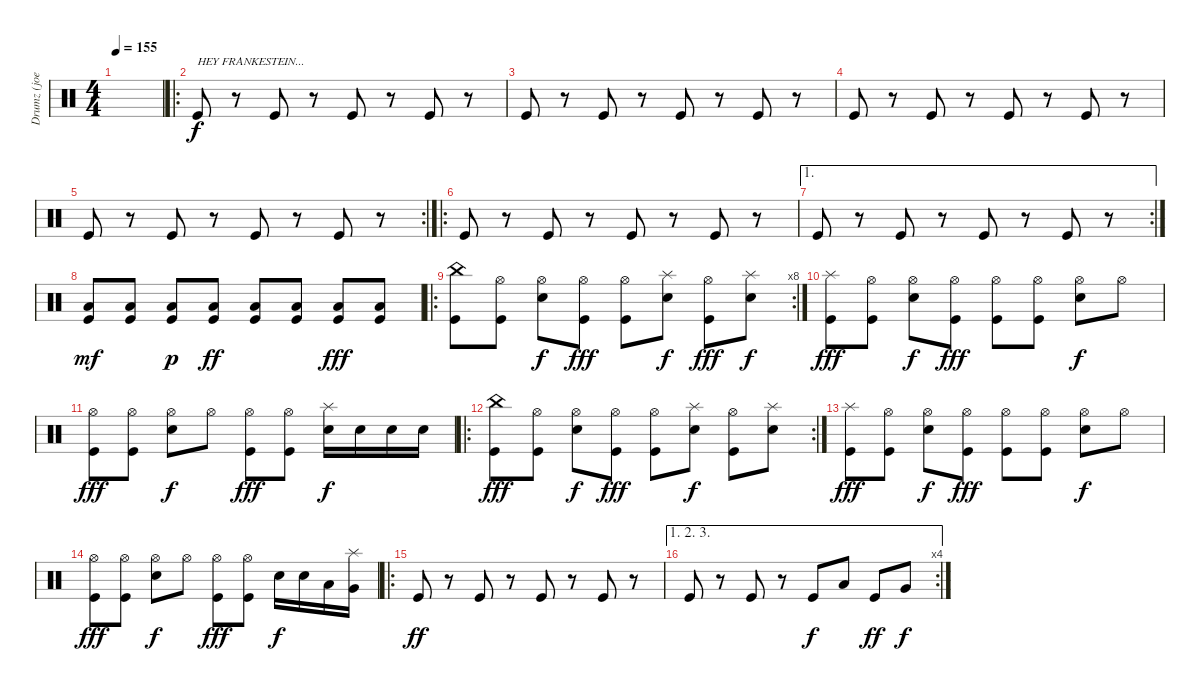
\track ("Drumz (joey on album)" "Drumz (joe") {instrument percussion}
\staff {score}
\articulation defaults
\ts (4 4)
\tempo 155
\clef neutral
\ks c
|
\ro "Kick (hit)".8{txt "HEY FRANKESTEIN..."}
r.8 "Kick (hit)".8 r.8 "Kick (hit)".8 r.8 "Kick (hit)".8 r.8 |
"Kick (hit)".8 r.8 "Kick (hit)".8 r.8 "Kick (hit)".8 r.8 "Kick (hit)".8 r.8 |
"Kick (hit)".8{dy f} r.8 "Kick (hit)".8 r.8 "Kick (hit)".8 r.8 "Kick (hit)".8 r.8 |
\rc 2 "Kick (hit)".8
r.8 "Kick (hit)".8 r.8 "Kick (hit)".8 r.8 "Kick (hit)".8 r.8 |
\ro "Kick (hit)".8
r.8 "Kick (hit)".8 r.8 "Kick (hit)".8 r.8 "Kick (hit)".8 r.8 |
\ae 1
\rc 2 "Kick (hit)".8
r.8 "Kick (hit)".8 r.8 "Kick (hit)".8 r.8 "Kick (hit)".8 r.8 |
("Low Floor Tom (hit)" "Kick (hit)").8{dy mf} ("Low Floor Tom (hit)" "Kick (hit)").8 ("Low Floor Tom (hit)" "Kick (hit)").8{dy p} ("Low Floor Tom (hit)" "Kick (hit)").8{dy ff} ("Low Floor Tom (hit)" "Kick (hit)").8 ("Low Floor Tom (hit)" "Kick (hit)").8 ("Low Floor Tom (hit)" "Kick (hit)").8{dy fff} ("Low Floor Tom (hit)" "Kick (hit)").8 |
\ro
\rc 8
("China (hit)" "Kick (hit)").8 ("Hi-Hat (open)" "Kick (hit)").8 ("Hi-Hat (open)" "Metronome (bell)").8{dy f} ("Hi-Hat (open)" "Kick (hit)").8{dy fff} ("Hi-Hat (open)" "Kick (hit)").8 ("Splash (hit)" "Metronome (bell)").8{dy f} ("Hi-Hat (open)" "Kick (hit)").8{dy fff} ("Splash (hit)" "Metronome (bell)").8{dy f} |
("Splash (hit)" "Kick (hit)").8{dy fff} ("Hi-Hat (open)" "Kick (hit)").8 ("Hi-Hat (open)" "Metronome (bell)").8{dy f} ("Hi-Hat (open)" "Kick (hit)").8{dy fff} ("Hi-Hat (open)" "Kick (hit)").8 ("Hi-Hat (open)" "Kick (hit)").8 ("Hi-Hat (open)" "Metronome (bell)").8{dy f} "Hi-Hat (open)".8 |
("Hi-Hat (open)" "Kick (hit)").8{dy fff} ("Hi-Hat (open)" "Kick (hit)").8 ("Hi-Hat (open)" "Metronome (bell)").8{dy f} "Hi-Hat (open)".8 ("Hi-Hat (open)" "Kick (hit)").8{dy fff} ("Hi-Hat (open)" "Kick (hit)").8 ("Splash (hit)" "Metronome (bell)").16{dy f} "Metronome (bell)".16 "Metronome (bell)".16 "Metronome (bell)".16 |
\ro
\rc 2
("China (hit)" "Kick (hit)").8{dy fff} ("Hi-Hat (open)" "Kick (hit)").8 ("Hi-Hat (open)" "Metronome (bell)").8{dy f} ("Hi-Hat (open)" "Kick (hit)").8{dy fff} ("Hi-Hat (open)" "Kick (hit)").8 ("Splash (hit)" "Metronome (bell)").8{dy f} ("Hi-Hat (open)" "Kick (hit)").8 ("Splash (hit)" "Metronome (bell)").8 |
("Splash (hit)" "Kick (hit)").8{dy fff} ("Hi-Hat (open)" "Kick (hit)").8 ("Hi-Hat (open)" "Metronome (bell)").8{dy f} ("Hi-Hat (open)" "Kick (hit)").8{dy fff} ("Hi-Hat (open)" "Kick (hit)").8 ("Hi-Hat (open)" "Kick (hit)").8 ("Hi-Hat (open)" "Metronome (bell)").8{dy f} "Hi-Hat (open)".8 |
("Hi-Hat (open)" "Kick (hit)").8{dy fff} ("Hi-Hat (open)" "Kick (hit)").8 ("Hi-Hat (open)" "Metronome (bell)").8{dy f} "Hi-Hat (open)".8 ("Hi-Hat (open)" "Kick (hit)").8{dy fff} ("Hi-Hat (open)" "Kick (hit)").8 "Metronome (bell)".16{dy f} "Metronome (bell)".16 "Low Tom (hit)".16 ("Splash (hit)" "Very Low Tom (hit)").16 |
\ro "Kick (hit)".8{dy ff}
r.8 "Kick (hit)".8 r.8 "Kick (hit)".8 r.8 "Kick (hit)".8 r.8 |
\ae (1 2 3)
\rc 4 "Kick (hit)".8
r.8 "Kick (hit)".8 r.8 "Kick (hit)".8{dy f} "Low Tom (hit)".8 "Kick (hit)".8{dy ff} "Very Low Tom (hit)".8{dy f}
